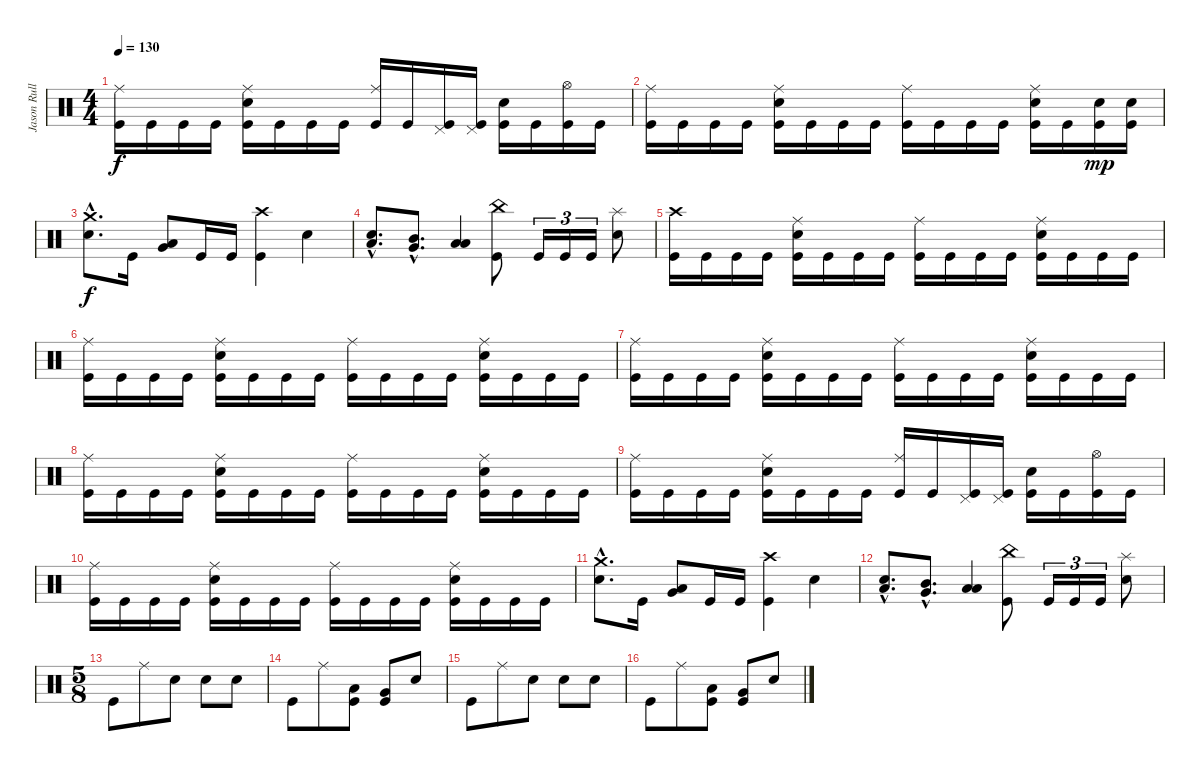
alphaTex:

\track ("Jason Rullo - Batterie" "Jason Rull") {instrument percussion}
\staff {score}
\articulation defaults
\ts (4 4)
\tempo 130
\clef neutral
\ks c
("Ride (middle)" "Kick (hit)").16{dy f} "Kick (hit)".16 "Kick (hit)".16 "Kick (hit)".16 ("Ride (middle)" "Snare (hit) 2" "Kick (hit)").16 "Kick (hit)".16 "Kick (hit)".16 "Kick (hit)".16 ("Ride (middle)" "Kick (hit)").16 "Kick (hit)".16 ("Pedal Hi-Hat (hit)" "Kick (hit)").16 ("Pedal Hi-Hat (hit)" "Kick (hit)").16 ("Snare (hit) 2" "Kick (hit)").16 "Kick (hit)".16 ("Hi-Hat (open)" "Kick (hit)").16 "Kick (hit)".16 |
("Ride (middle)" "Kick (hit)").16 "Kick (hit)".16 "Kick (hit)".16 "Kick (hit)".16 ("Ride (middle)" "Snare (hit) 2" "Kick (hit)").16 "Kick (hit)".16 "Kick (hit)".16 "Kick (hit)".16 ("Ride (middle)" "Kick (hit)").16 "Kick (hit)".16 "Kick (hit)".16 "Kick (hit)".16 ("Ride (middle)" "Snare (hit) 2" "Kick (hit)").16 "Kick (hit)".16 ("Snare (hit) 2" "Kick (hit)").16{dy mp} ("Snare (hit) 2" "Kick (hit)").16 |
("Crash medium (hit)"{hac} "Snare (hit) 2"{hac}).8{d dy f} "Kick (hit)".16 ("Very Low Tom (hit)" "Low Tom (hit)").8 "Kick (hit)".16 "Kick (hit)".16 ("Crash high (hit)" "Kick (hit)").4 "Snare (hit) 2".4 |
("Low Tom (hit)"{hac} "Snare (hit) 2"{hac}).8{d} ("Very Low Tom (hit)"{hac} "Mid Tom (hit)"{hac}).8{d} ("Low Floor Tom (hit)" "Low Tom (hit)").4 ("China (hit)" "Kick (hit)").8 "Kick (hit)".16{tu (3 2)} "Kick (hit)".16{tu (3 2)} "Kick (hit)".16{tu (3 2)} ("Splash (hit)" "Snare (hit) 2").8 |
("Crash high (hit)" "Kick (hit)").16 "Kick (hit)".16 "Kick (hit)".16 "Kick (hit)".16 ("Ride (middle)" "Snare (hit) 2" "Kick (hit)").16 "Kick (hit)".16 "Kick (hit)".16 "Kick (hit)".16 ("Ride (middle)" "Kick (hit)").16 "Kick (hit)".16 "Kick (hit)".16 "Kick (hit)".16 ("Ride (middle)" "Snare (hit) 2" "Kick (hit)").16 "Kick (hit)".16 "Kick (hit)".16 "Kick (hit)".16 |
("Ride (middle)" "Kick (hit)").16 "Kick (hit)".16 "Kick (hit)".16 "Kick (hit)".16 ("Ride (middle)" "Snare (hit) 2" "Kick (hit)").16 "Kick (hit)".16 "Kick (hit)".16 "Kick (hit)".16 ("Ride (middle)" "Kick (hit)").16 "Kick (hit)".16 "Kick (hit)".16 "Kick (hit)".16 ("Ride (middle)" "Snare (hit) 2" "Kick (hit)").16 "Kick (hit)".16 "Kick (hit)".16 "Kick (hit)".16 |
("Ride (middle)" "Kick (hit)").16 "Kick (hit)".16 "Kick (hit)".16 "Kick (hit)".16 ("Ride (middle)" "Snare (hit) 2" "Kick (hit)").16 "Kick (hit)".16 "Kick (hit)".16 "Kick (hit)".16 ("Ride (middle)" "Kick (hit)").16 "Kick (hit)".16 "Kick (hit)".16 "Kick (hit)".16 ("Ride (middle)" "Snare (hit) 2" "Kick (hit)").16 "Kick (hit)".16 "Kick (hit)".16 "Kick (hit)".16 |
("Ride (middle)" "Kick (hit)").16 "Kick (hit)".16 "Kick (hit)".16 "Kick (hit)".16 ("Ride (middle)" "Snare (hit) 2" "Kick (hit)").16 "Kick (hit)".16 "Kick (hit)".16 "Kick (hit)".16 ("Ride (middle)" "Kick (hit)").16 "Kick (hit)".16 "Kick (hit)".16 "Kick (hit)".16 ("Ride (middle)" "Snare (hit) 2" "Kick (hit)").16 "Kick (hit)".16 "Kick (hit)".16 "Kick (hit)".16 |
("Ride (middle)" "Kick (hit)").16 "Kick (hit)".16 "Kick (hit)".16 "Kick (hit)".16 ("Ride (middle)" "Snare (hit) 2" "Kick (hit)").16 "Kick (hit)".16 "Kick (hit)".16 "Kick (hit)".16 ("Ride (middle)" "Kick (hit)").16 "Kick (hit)".16 ("Pedal Hi-Hat (hit)" "Kick (hit)").16 ("Pedal Hi-Hat (hit)" "Kick (hit)").16 ("Snare (hit) 2" "Kick (hit)").16 "Kick (hit)".16 ("Hi-Hat (open)" "Kick (hit)").16 "Kick (hit)".16 |
("Ride (middle)" "Kick (hit)").16 "Kick (hit)".16 "Kick (hit)".16 "Kick (hit)".16 ("Ride (middle)" "Snare (hit) 2" "Kick (hit)").16 "Kick (hit)".16 "Kick (hit)".16 "Kick (hit)".16 ("Ride (middle)" "Kick (hit)").16 "Kick (hit)".16 "Kick (hit)".16 "Kick (hit)".16 ("Ride (middle)" "Snare (hit) 2" "Kick (hit)").16 "Kick (hit)".16 "Kick (hit)".16 "Kick (hit)".16 |
("Crash medium (hit)"{hac} "Snare (hit) 2"{hac}).8{d} "Kick (hit)".16 ("Very Low Tom (hit)" "Low Tom (hit)").8 "Kick (hit)".16 "Kick (hit)".16 ("Crash high (hit)" "Kick (hit)").4 "Snare (hit) 2".4 |
("Low Tom (hit)"{hac} "Snare (hit) 2"{hac}).8{d} ("Very Low Tom (hit)"{hac} "Mid Tom (hit)"{hac}).8{d} ("Low Floor Tom (hit)" "Low Tom (hit)").4 ("China (hit)" "Kick (hit)").8 "Kick (hit)".16{tu (3 2)} "Kick (hit)".16{tu (3 2)} "Kick (hit)".16{tu (3 2)} ("Splash (hit)" "Snare (hit) 2").8 |
\ts (5 8)
"Kick (hit)".8 "Ride (middle)".8 "Snare (hit) 2".8 "Snare (hit) 2".8 "Snare (hit) 2".8 |
"Kick (hit)".8 "Ride (middle)".8 ("Low Tom (hit)" "Kick (hit)").8 ("Very Low Tom (hit)" "Kick (hit)").8 "Snare (hit) 2".8 |
"Kick (hit)".8 "Ride (middle)".8 "Snare (hit) 2".8 "Snare (hit) 2".8 "Snare (hit) 2".8 |
"Kick (hit)".8 "Ride (middle)".8 ("Low Tom (hit)" "Kick (hit)").8 ("Very Low Tom (hit)" "Kick (hit)").8 "Snare (hit) 2".8
